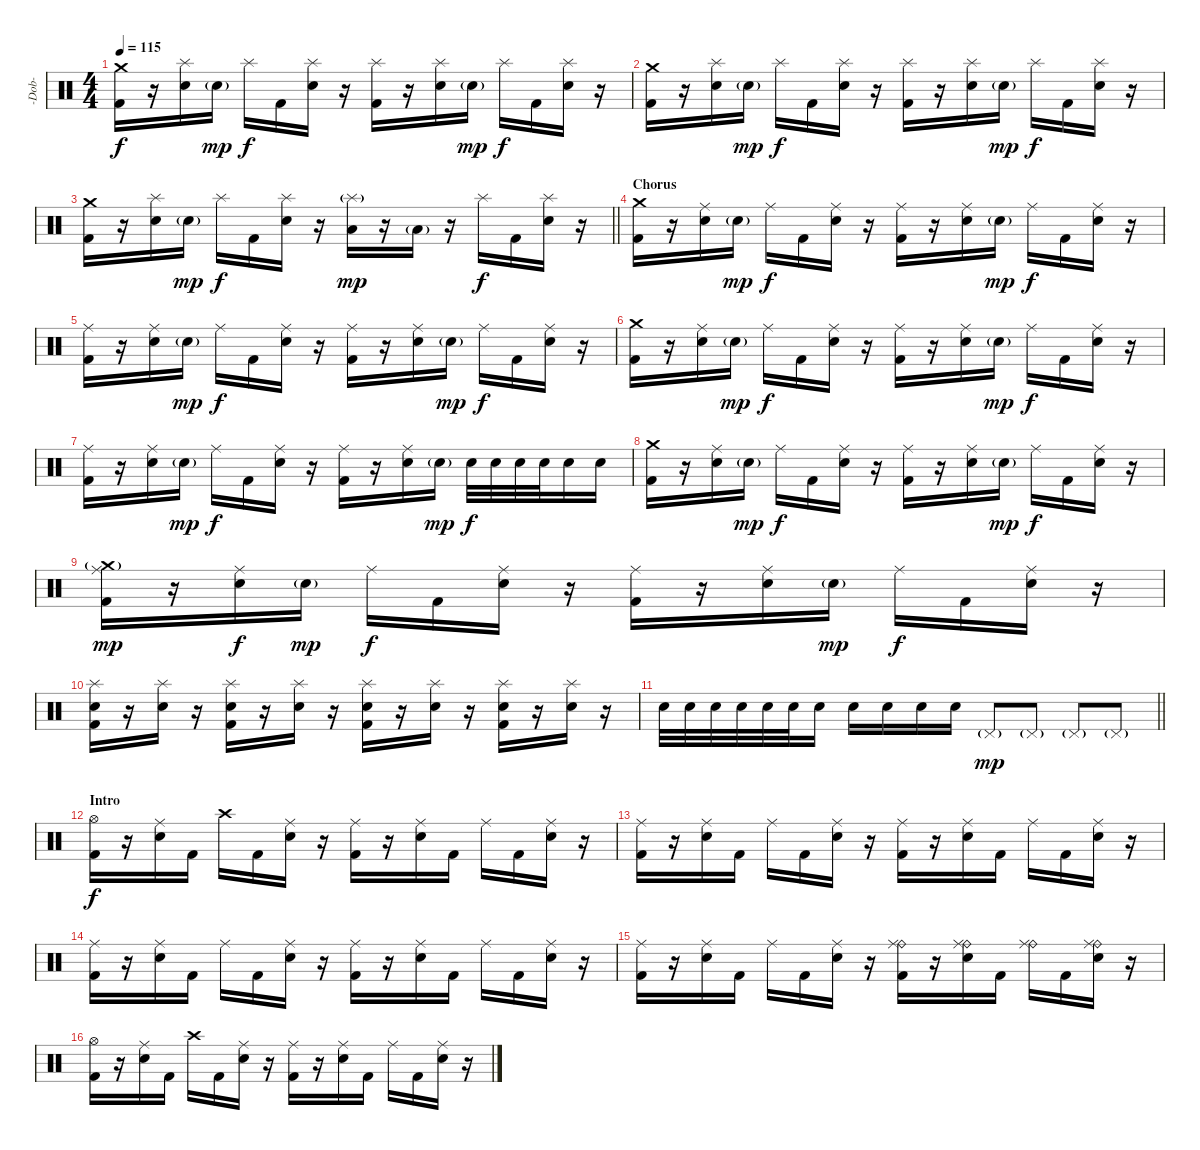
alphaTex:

\track ("-Dob-" "-Dob-") {instrument percussion}
\staff {score}
\articulation defaults
\ts (4 4)
\tempo 115
\clef neutral
\ks c
("Crash medium (hit)" "Kick (hit) 2").16{dy f} r.16 ("Splash (hit)" "Snare (hit) 2").16 "Snare (hit) 2"{g}.16{dy mp} "Splash (hit)".16{dy f} "Kick (hit) 2".16 ("Splash (hit)" "Snare (hit) 2").16 r.16 ("Splash (hit)" "Kick (hit) 2").16 r.16 ("Splash (hit)" "Snare (hit) 2").16 "Snare (hit) 2"{g}.16{dy mp} "Splash (hit)".16{dy f} "Kick (hit) 2".16 ("Splash (hit)" "Snare (hit) 2").16 r.16 |
("Crash medium (hit)" "Kick (hit) 2").16 r.16 ("Splash (hit)" "Snare (hit) 2").16 "Snare (hit) 2"{g}.16{dy mp} "Splash (hit)".16{dy f} "Kick (hit) 2".16 ("Splash (hit)" "Snare (hit) 2").16 r.16 ("Splash (hit)" "Kick (hit) 2").16 r.16 ("Splash (hit)" "Snare (hit) 2").16 "Snare (hit) 2"{g}.16{dy mp} "Splash (hit)".16{dy f} "Kick (hit) 2".16 ("Splash (hit)" "Snare (hit) 2").16 r.16 |
\barLineRight lightlight
("Crash medium (hit)" "Kick (hit) 2").16 r.16 ("Splash (hit)" "Snare (hit) 2").16 "Snare (hit) 2"{g}.16{dy mp} "Splash (hit)".16{dy f} "Kick (hit) 2".16 ("Splash (hit)" "Snare (hit) 2").16 r.16 ("Splash (hit)"{g} "Low Floor Tom (hit)").16{dy mp} r.16 "Low Floor Tom (hit)"{g}.16 r.16 "Splash (hit)".16{dy f} "Kick (hit) 2".16 ("Splash (hit)" "Snare (hit) 2").16 r.16 |
\section ("" "Chorus")
("Crash medium (hit)" "Kick (hit) 2").16 r.16 ("Ride (middle)" "Snare (hit) 2").16 "Snare (hit) 2"{g}.16{dy mp} "Ride (middle)".16{dy f} "Kick (hit) 2".16 ("Ride (middle)" "Snare (hit) 2").16 r.16 ("Ride (middle)" "Kick (hit) 2").16 r.16 ("Ride (middle)" "Snare (hit) 2").16 "Snare (hit) 2"{g}.16{dy mp} "Ride (middle)".16{dy f} "Kick (hit) 2".16 ("Ride (middle)" "Snare (hit) 2").16 r.16 |
("Ride (middle)" "Kick (hit) 2").16 r.16 ("Ride (middle)" "Snare (hit) 2").16 "Snare (hit) 2"{g}.16{dy mp} "Ride (middle)".16{dy f} "Kick (hit) 2".16 ("Ride (middle)" "Snare (hit) 2").16 r.16 ("Ride (middle)" "Kick (hit) 2").16 r.16 ("Ride (middle)" "Snare (hit) 2").16 "Snare (hit) 2"{g}.16{dy mp} "Ride (middle)".16{dy f} "Kick (hit) 2".16 ("Ride (middle)" "Snare (hit) 2").16 r.16 |
("Crash medium (hit)" "Kick (hit) 2").16 r.16 ("Ride (middle)" "Snare (hit) 2").16 "Snare (hit) 2"{g}.16{dy mp} "Ride (middle)".16{dy f} "Kick (hit) 2".16 ("Ride (middle)" "Snare (hit) 2").16 r.16 ("Ride (middle)" "Kick (hit) 2").16 r.16 ("Ride (middle)" "Snare (hit) 2").16 "Snare (hit) 2"{g}.16{dy mp} "Ride (middle)".16{dy f} "Kick (hit) 2".16 ("Ride (middle)" "Snare (hit) 2").16 r.16 |
("Ride (middle)" "Kick (hit) 2").16 r.16 ("Ride (middle)" "Snare (hit) 2").16 "Snare (hit) 2"{g}.16{dy mp} "Ride (middle)".16{dy f} "Kick (hit) 2".16 ("Ride (middle)" "Snare (hit) 2").16 r.16 ("Ride (middle)" "Kick (hit) 2").16 r.16 ("Ride (middle)" "Snare (hit) 2").16 "Snare (hit) 2"{g}.16{dy mp} "Snare (hit) 2".32{dy f} "Snare (hit) 2".32 "Snare (hit) 2".32 "Snare (hit) 2".32 "Snare (hit) 2".16 "Snare (hit) 2".16 |
("Crash medium (hit)" "Kick (hit) 2").16 r.16 ("Ride (middle)" "Snare (hit) 2").16 "Snare (hit) 2"{g}.16{dy mp} "Ride (middle)".16{dy f} "Kick (hit) 2".16 ("Ride (middle)" "Snare (hit) 2").16 r.16 ("Ride (middle)" "Kick (hit) 2").16 r.16 ("Ride (middle)" "Snare (hit) 2").16 "Snare (hit) 2"{g}.16{dy mp} "Ride (middle)".16{dy f} "Kick (hit) 2".16 ("Ride (middle)" "Snare (hit) 2").16 r.16 |
("Crash medium (hit)"{g} "Ride (middle)" "Kick (hit) 2").16{dy mp} r.16 ("Ride (middle)" "Snare (hit) 2").16{dy f} "Snare (hit) 2"{g}.16{dy mp} "Ride (middle)".16{dy f} "Kick (hit) 2".16 ("Ride (middle)" "Snare (hit) 2").16 r.16 ("Ride (middle)" "Kick (hit) 2").16 r.16 ("Ride (middle)" "Snare (hit) 2").16 "Snare (hit) 2"{g}.16{dy mp} "Ride (middle)".16{dy f} "Kick (hit) 2".16 ("Ride (middle)" "Snare (hit) 2").16 r.16 |
("Splash (hit)" "Snare (hit) 2" "Kick (hit) 2").16 r.16 ("Splash (hit)" "Snare (hit) 2").16 r.16 ("Splash (hit)" "Snare (hit) 2" "Kick (hit) 2").16 r.16 ("Splash (hit)" "Snare (hit) 2").16 r.16 ("Splash (hit)" "Snare (hit) 2" "Kick (hit) 2").16 r.16 ("Splash (hit)" "Snare (hit) 2").16 r.16 ("Splash (hit)" "Snare (hit) 2" "Kick (hit) 2").16 r.16 ("Splash (hit)" "Snare (hit) 2").16 r.16 |
\barLineRight lightlight "Snare (hit) 2".32 "Snare (hit) 2".32 "Snare (hit) 2".32 "Snare (hit) 2".32 "Snare (hit) 2".32 "Snare (hit) 2".32 "Snare (hit) 2".16 "Snare (hit) 2".16 "Snare (hit) 2".16 "Snare (hit) 2".16 "Snare (hit) 2".16 "Pedal Hi-Hat (hit)"{g}.8{dy mp} "Pedal Hi-Hat (hit)"{g}.8 "Pedal Hi-Hat (hit)"{g}.8 "Pedal Hi-Hat (hit)"{g}.8
|
\section ("" "Intro")
("Hi-Hat (open)" "Kick (hit) 2").16{dy f} r.16 ("Ride (middle)" "Snare (hit) 2").16 "Kick (hit) 2".16 "Crash high (hit)".16 "Kick (hit) 2".16 ("Ride (middle)" "Snare (hit) 2").16 r.16 ("Ride (middle)" "Kick (hit) 2").16 r.16 ("Ride (middle)" "Snare (hit) 2").16 "Kick (hit) 2".16 "Ride (middle)".16 "Kick (hit) 2".16 ("Ride (middle)" "Snare (hit) 2").16 r.16 |
("Ride (middle)" "Kick (hit) 2").16 r.16 ("Ride (middle)" "Snare (hit) 2").16 "Kick (hit) 2".16 "Ride (middle)".16 "Kick (hit) 2".16 ("Ride (middle)" "Snare (hit) 2").16 r.16 ("Ride (middle)" "Kick (hit) 2").16 r.16 ("Ride (middle)" "Snare (hit) 2").16 "Kick (hit) 2".16 "Ride (middle)".16 "Kick (hit) 2".16 ("Ride (middle)" "Snare (hit) 2").16 r.16 |
("Ride (middle)" "Kick (hit) 2").16 r.16 ("Ride (middle)" "Snare (hit) 2").16 "Kick (hit) 2".16 "Ride (middle)".16 "Kick (hit) 2".16 ("Ride (middle)" "Snare (hit) 2").16 r.16 ("Ride (middle)" "Kick (hit) 2").16 r.16 ("Ride (middle)" "Snare (hit) 2").16 "Kick (hit) 2".16 "Ride (middle)".16 "Kick (hit) 2".16 ("Ride (middle)" "Snare (hit) 2").16 r.16 |
("Ride (middle)" "Kick (hit) 2").16 r.16 ("Ride (middle)" "Snare (hit) 2").16 "Kick (hit) 2".16 "Ride (middle)".16 "Kick (hit) 2".16 ("Ride (middle)" "Snare (hit) 2").16 r.16 ("Ride (bell)" "Ride (middle)" "Kick (hit) 2").16 r.16 ("Ride (bell)" "Ride (middle)" "Snare (hit) 2").16 "Kick (hit) 2".16 ("Ride (bell)" "Ride (middle)").16 "Kick (hit) 2".16 ("Ride (bell)" "Ride (middle)" "Snare (hit) 2").16 r.16 |
("Hi-Hat (open)" "Kick (hit) 2").16 r.16 ("Ride (middle)" "Snare (hit) 2").16 "Kick (hit) 2".16 "Crash high (hit)".16 "Kick (hit) 2".16 ("Ride (middle)" "Snare (hit) 2").16 r.16 ("Ride (middle)" "Kick (hit) 2").16 r.16 ("Ride (middle)" "Snare (hit) 2").16 "Kick (hit) 2".16 "Ride (middle)".16 "Kick (hit) 2".16 ("Ride (middle)" "Snare (hit) 2").16 r.16
